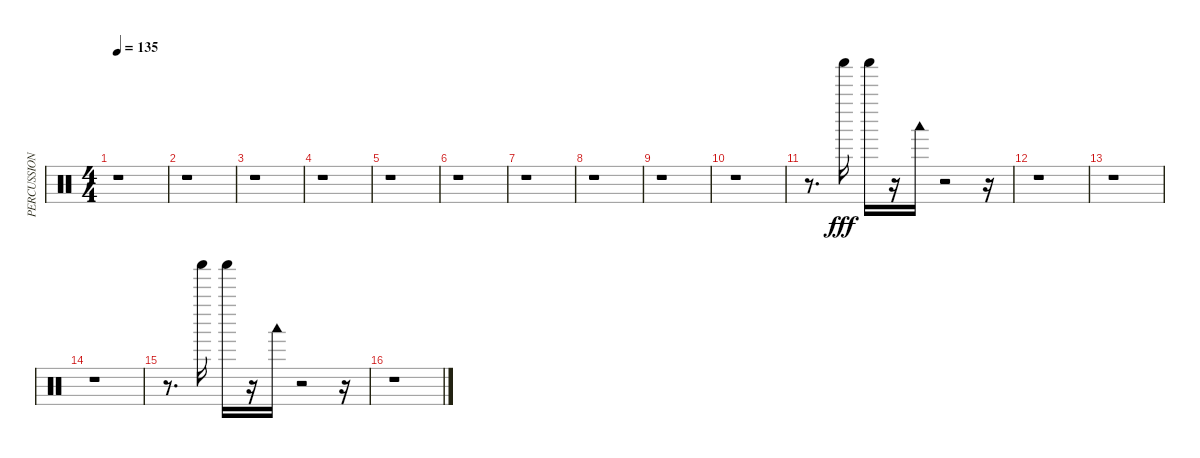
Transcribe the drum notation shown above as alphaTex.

\track ("PERCUSSION" "PERCUSSION") {instrument percussion}
\staff {score}
\articulation defaults
\ts (4 4)
\tempo 135
\clef neutral
\ks c
r.1{dy fff} |
r.1 |
r.1 |
r.1 |
r.1 |
r.1 |
r.1 |
r.1 |
r.1 |
r.1 |
r.8{d} "Shaker (hit)".16 "Shaker (hit)".16 r.16 "Woodblock low (hit)".16 r.2 r.16 |
r.1 |
r.1 |
r.1 |
r.8{d} "Shaker (hit)".16 "Shaker (hit)".16 r.16 "Woodblock low (hit)".16 r.2 r.16 |
r.1
